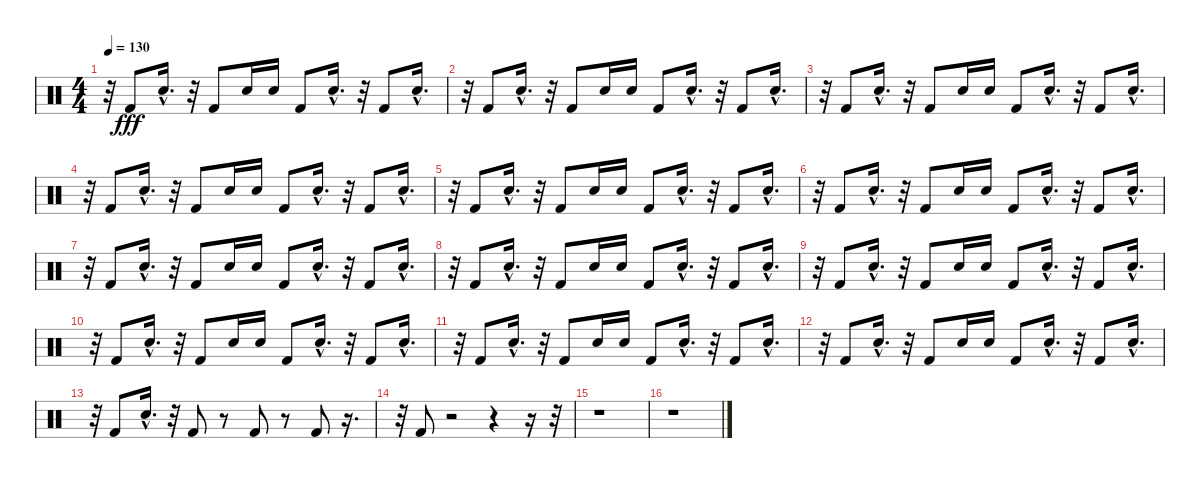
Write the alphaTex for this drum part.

\track "" {instrument percussion}
\staff {score}
\articulation defaults
\ts (4 4)
\tempo 130
\clef neutral
\ks c
r.32{dy fff} "Kick (hit) 2".8 "Electric Snare (hit)"{hac}.16{d} r.32 "Kick (hit) 2".8 "Electric Snare (hit)".16 "Electric Snare (hit)".16 "Kick (hit) 2".8 "Electric Snare (hit)"{hac}.16{d} r.32 "Kick (hit) 2".8 "Electric Snare (hit)"{hac}.16{d} |
r.32 "Kick (hit) 2".8 "Electric Snare (hit)"{hac}.16{d} r.32 "Kick (hit) 2".8 "Electric Snare (hit)".16 "Electric Snare (hit)".16 "Kick (hit) 2".8 "Electric Snare (hit)"{hac}.16{d} r.32 "Kick (hit) 2".8 "Electric Snare (hit)"{hac}.16{d} |
r.32 "Kick (hit) 2".8 "Electric Snare (hit)"{hac}.16{d} r.32 "Kick (hit) 2".8 "Electric Snare (hit)".16 "Electric Snare (hit)".16 "Kick (hit) 2".8 "Electric Snare (hit)"{hac}.16{d} r.32 "Kick (hit) 2".8 "Electric Snare (hit)"{hac}.16{d} |
r.32 "Kick (hit) 2".8 "Electric Snare (hit)"{hac}.16{d} r.32 "Kick (hit) 2".8 "Electric Snare (hit)".16 "Electric Snare (hit)".16 "Kick (hit) 2".8 "Electric Snare (hit)"{hac}.16{d} r.32 "Kick (hit) 2".8 "Electric Snare (hit)"{hac}.16{d} |
r.32 "Kick (hit) 2".8 "Electric Snare (hit)"{hac}.16{d} r.32 "Kick (hit) 2".8 "Electric Snare (hit)".16 "Electric Snare (hit)".16 "Kick (hit) 2".8 "Electric Snare (hit)"{hac}.16{d} r.32 "Kick (hit) 2".8 "Electric Snare (hit)"{hac}.16{d} |
r.32 "Kick (hit) 2".8 "Electric Snare (hit)"{hac}.16{d} r.32 "Kick (hit) 2".8 "Electric Snare (hit)".16 "Electric Snare (hit)".16 "Kick (hit) 2".8 "Electric Snare (hit)"{hac}.16{d} r.32 "Kick (hit) 2".8 "Electric Snare (hit)"{hac}.16{d} |
r.32 "Kick (hit) 2".8 "Electric Snare (hit)"{hac}.16{d} r.32 "Kick (hit) 2".8 "Electric Snare (hit)".16 "Electric Snare (hit)".16 "Kick (hit) 2".8 "Electric Snare (hit)"{hac}.16{d} r.32 "Kick (hit) 2".8 "Electric Snare (hit)"{hac}.16{d} |
r.32 "Kick (hit) 2".8 "Electric Snare (hit)"{hac}.16{d} r.32 "Kick (hit) 2".8 "Electric Snare (hit)".16 "Electric Snare (hit)".16 "Kick (hit) 2".8 "Electric Snare (hit)"{hac}.16{d} r.32 "Kick (hit) 2".8 "Electric Snare (hit)"{hac}.16{d} |
r.32 "Kick (hit) 2".8 "Electric Snare (hit)"{hac}.16{d} r.32 "Kick (hit) 2".8 "Electric Snare (hit)".16 "Electric Snare (hit)".16 "Kick (hit) 2".8 "Electric Snare (hit)"{hac}.16{d} r.32 "Kick (hit) 2".8 "Electric Snare (hit)"{hac}.16{d} |
r.32 "Kick (hit) 2".8 "Electric Snare (hit)"{hac}.16{d} r.32 "Kick (hit) 2".8 "Electric Snare (hit)".16 "Electric Snare (hit)".16 "Kick (hit) 2".8 "Electric Snare (hit)"{hac}.16{d} r.32 "Kick (hit) 2".8 "Electric Snare (hit)"{hac}.16{d} |
r.32 "Kick (hit) 2".8 "Electric Snare (hit)"{hac}.16{d} r.32 "Kick (hit) 2".8 "Electric Snare (hit)".16 "Electric Snare (hit)".16 "Kick (hit) 2".8 "Electric Snare (hit)"{hac}.16{d} r.32 "Kick (hit) 2".8 "Electric Snare (hit)"{hac}.16{d} |
r.32 "Kick (hit) 2".8 "Electric Snare (hit)"{hac}.16{d} r.32 "Kick (hit) 2".8 "Electric Snare (hit)".16 "Electric Snare (hit)".16 "Kick (hit) 2".8 "Electric Snare (hit)"{hac}.16{d} r.32 "Kick (hit) 2".8 "Electric Snare (hit)"{hac}.16{d} |
r.32 "Kick (hit) 2".8 "Electric Snare (hit)"{hac}.16{d} r.32 "Kick (hit) 2".8 r.8 "Kick (hit) 2".8 r.8 "Kick (hit) 2".8 r.16{d} |
r.32 "Kick (hit) 2".8 r.2 r.4 r.16 r.32 |
r.1 |
r.1
